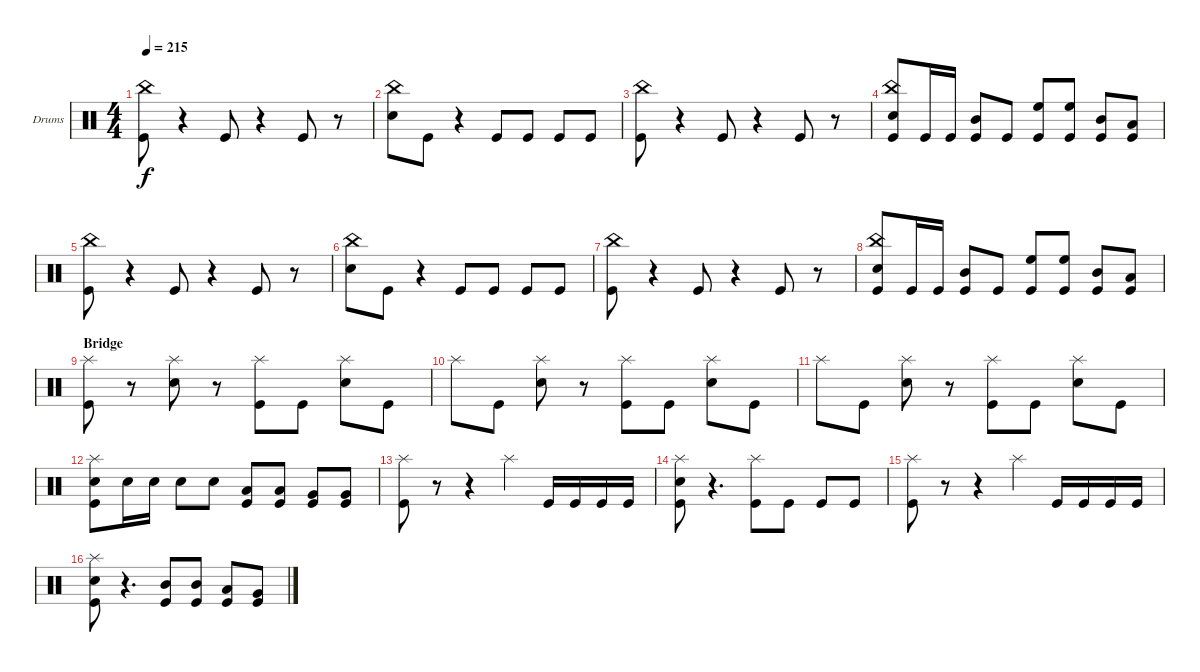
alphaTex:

\defaultSystemsLayout 4
\bracketExtendMode groupsimilarinstruments
\firstSystemTrackNameOrientation horizontal
\otherSystemsTrackNameOrientation horizontal
\track ("Drumkit" "Drums") {instrument percussion}
\staff {score}
\articulation defaults
\ts (4 4)
\tempo 215
\clef neutral
\ks c
("Kick (hit)" "China (hit)").8{dy f} r.4 "Kick (hit)".8 r.4 "Kick (hit)".8 r.8 |
("China (hit)" "Snare (hit) 2").8 "Kick (hit)".8 r.4 "Kick (hit)".8 "Kick (hit)".8 "Kick (hit)".8 "Kick (hit)".8 |
("Kick (hit)" "China (hit)").8 r.4 "Kick (hit)".8 r.4 "Kick (hit)".8 r.8 |
("Kick (hit)" "Snare (hit) 2" "China (hit)").8 "Kick (hit)".16 "Kick (hit)".16 ("Kick (hit)" "Mid Tom (hit)").8 "Kick (hit)".8 ("Kick (hit)" "High Floor Tom (hit)").8 ("Kick (hit)" "High Floor Tom (hit)").8 ("Kick (hit)" "Mid Tom (hit)").8 ("Kick (hit)" "Low Tom (hit)").8 |
("Kick (hit)" "China (hit)").8 r.4 "Kick (hit)".8 r.4 "Kick (hit)".8 r.8 |
("China (hit)" "Snare (hit) 2").8 "Kick (hit)".8 r.4 "Kick (hit)".8 "Kick (hit)".8 "Kick (hit)".8 "Kick (hit)".8 |
("Kick (hit)" "China (hit)").8 r.4 "Kick (hit)".8 r.4 "Kick (hit)".8 r.8 |
("Kick (hit)" "Snare (hit) 2" "China (hit)").8 "Kick (hit)".16 "Kick (hit)".16 ("Kick (hit)" "Mid Tom (hit)").8 "Kick (hit)".8 ("Kick (hit)" "High Floor Tom (hit)").8 ("Kick (hit)" "High Floor Tom (hit)").8 ("Kick (hit)" "Mid Tom (hit)").8 ("Kick (hit)" "Low Tom (hit)").8 |
\section ("" "Bridge")
("Splash (hit)" "Kick (hit)").8 r.8 ("Splash (hit)" "Snare (hit) 2").8 r.8 ("Splash (hit)" "Kick (hit)").8 "Kick (hit)".8 ("Splash (hit)" "Snare (hit) 2").8 "Kick (hit)".8 |
"Splash (hit)".8 "Kick (hit)".8 ("Splash (hit)" "Snare (hit) 2").8 r.8 ("Splash (hit)" "Kick (hit)").8 "Kick (hit)".8 ("Splash (hit)" "Snare (hit) 2").8 "Kick (hit)".8 |
"Splash (hit)".8 "Kick (hit)".8 ("Splash (hit)" "Snare (hit) 2").8 r.8 ("Splash (hit)" "Kick (hit)").8 "Kick (hit)".8 ("Splash (hit)" "Snare (hit) 2").8 "Kick (hit)".8 |
("Snare (hit) 2" "Splash (hit)" "Kick (hit)").8 "Snare (hit) 2".16 "Snare (hit) 2".16 "Snare (hit) 2".8 "Snare (hit) 2".8 ("Low Tom (hit)" "Kick (hit)").8 ("Low Tom (hit)" "Kick (hit)").8 ("Very Low Tom (hit)" "Kick (hit)").8 ("Very Low Tom (hit)" "Kick (hit)").8 |
("Kick (hit)" "Splash (hit)").8 r.8 r.4 "Splash (hit)".4 "Kick (hit)".16 "Kick (hit)".16 "Kick (hit)".16 "Kick (hit)".16 |
("Kick (hit)" "Splash (hit)" "Snare (hit) 2").8 r.4{d} ("Kick (hit)" "Splash (hit)").8 "Kick (hit)".8 "Kick (hit)".8 "Kick (hit)".8 |
("Kick (hit)" "Splash (hit)").8 r.8 r.4 "Splash (hit)".4 "Kick (hit)".16 "Kick (hit)".16 "Kick (hit)".16 "Kick (hit)".16 |
("Kick (hit)" "Splash (hit)" "Snare (hit) 2").8 r.4{d} ("Kick (hit)" "Mid Tom (hit)").8 ("Kick (hit)" "Mid Tom (hit)").8 ("Kick (hit)" "Low Tom (hit)").8 ("Kick (hit)" "Very Low Tom (hit)").8
